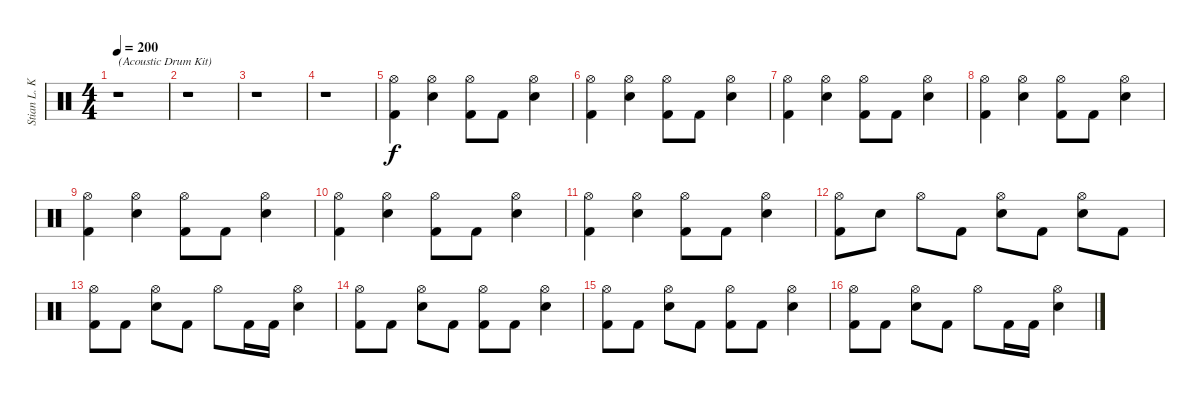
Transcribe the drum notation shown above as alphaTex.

\track ("Stian L. Kristoffersen - Drums" "Stian L. K") {instrument percussion}
\staff {score}
\articulation defaults
\ts (4 4)
\tempo 200
\clef neutral
\ks c
r.1{txt "(Acoustic Drum Kit)" dy f} |
r.1 |
r.1 |
r.1 |
("Hi-Hat (open)" "Kick (hit) 2").4 ("Hi-Hat (open)" "Electric Snare (hit)").4 ("Hi-Hat (open)" "Kick (hit) 2").8 "Kick (hit) 2".8 ("Hi-Hat (open)" "Electric Snare (hit)").4 |
("Hi-Hat (open)" "Kick (hit) 2").4 ("Hi-Hat (open)" "Electric Snare (hit)").4 ("Hi-Hat (open)" "Kick (hit) 2").8 "Kick (hit) 2".8 ("Hi-Hat (open)" "Electric Snare (hit)").4 |
("Hi-Hat (open)" "Kick (hit) 2").4 ("Hi-Hat (open)" "Electric Snare (hit)").4 ("Hi-Hat (open)" "Kick (hit) 2").8 "Kick (hit) 2".8 ("Hi-Hat (open)" "Electric Snare (hit)").4 |
("Hi-Hat (open)" "Kick (hit) 2").4 ("Hi-Hat (open)" "Electric Snare (hit)").4 ("Hi-Hat (open)" "Kick (hit) 2").8 "Kick (hit) 2".8 ("Hi-Hat (open)" "Electric Snare (hit)").4 |
("Hi-Hat (open)" "Kick (hit) 2").4 ("Hi-Hat (open)" "Electric Snare (hit)").4 ("Hi-Hat (open)" "Kick (hit) 2").8 "Kick (hit) 2".8 ("Hi-Hat (open)" "Electric Snare (hit)").4 |
("Hi-Hat (open)" "Kick (hit) 2").4 ("Hi-Hat (open)" "Electric Snare (hit)").4 ("Hi-Hat (open)" "Kick (hit) 2").8 "Kick (hit) 2".8 ("Hi-Hat (open)" "Electric Snare (hit)").4 |
("Hi-Hat (open)" "Kick (hit) 2").4 ("Hi-Hat (open)" "Electric Snare (hit)").4 ("Hi-Hat (open)" "Kick (hit) 2").8 "Kick (hit) 2".8 ("Hi-Hat (open)" "Electric Snare (hit)").4 |
("Hi-Hat (open)" "Kick (hit) 2").8 "Electric Snare (hit)".8 "Hi-Hat (open)".8 "Kick (hit) 2".8 ("Hi-Hat (open)" "Electric Snare (hit)").8 "Kick (hit) 2".8 ("Hi-Hat (open)" "Electric Snare (hit)").8 "Kick (hit) 2".8 |
("Hi-Hat (open)" "Kick (hit) 2").8 "Kick (hit) 2".8 ("Hi-Hat (open)" "Electric Snare (hit)").8 "Kick (hit) 2".8 "Hi-Hat (open)".8 "Kick (hit) 2".16 "Kick (hit) 2".16 ("Hi-Hat (open)" "Electric Snare (hit)").4 |
("Hi-Hat (open)" "Kick (hit) 2").8 "Kick (hit) 2".8 ("Hi-Hat (open)" "Electric Snare (hit)").8 "Kick (hit) 2".8 ("Hi-Hat (open)" "Kick (hit) 2").8 "Kick (hit) 2".8 ("Hi-Hat (open)" "Electric Snare (hit)").4 |
("Hi-Hat (open)" "Kick (hit) 2").8 "Kick (hit) 2".8 ("Hi-Hat (open)" "Electric Snare (hit)").8 "Kick (hit) 2".8 ("Hi-Hat (open)" "Kick (hit) 2").8 "Kick (hit) 2".8 ("Hi-Hat (open)" "Electric Snare (hit)").4 |
("Hi-Hat (open)" "Kick (hit) 2").8 "Kick (hit) 2".8 ("Hi-Hat (open)" "Electric Snare (hit)").8 "Kick (hit) 2".8 "Hi-Hat (open)".8 "Kick (hit) 2".16 "Kick (hit) 2".16 ("Hi-Hat (open)" "Electric Snare (hit)").4
